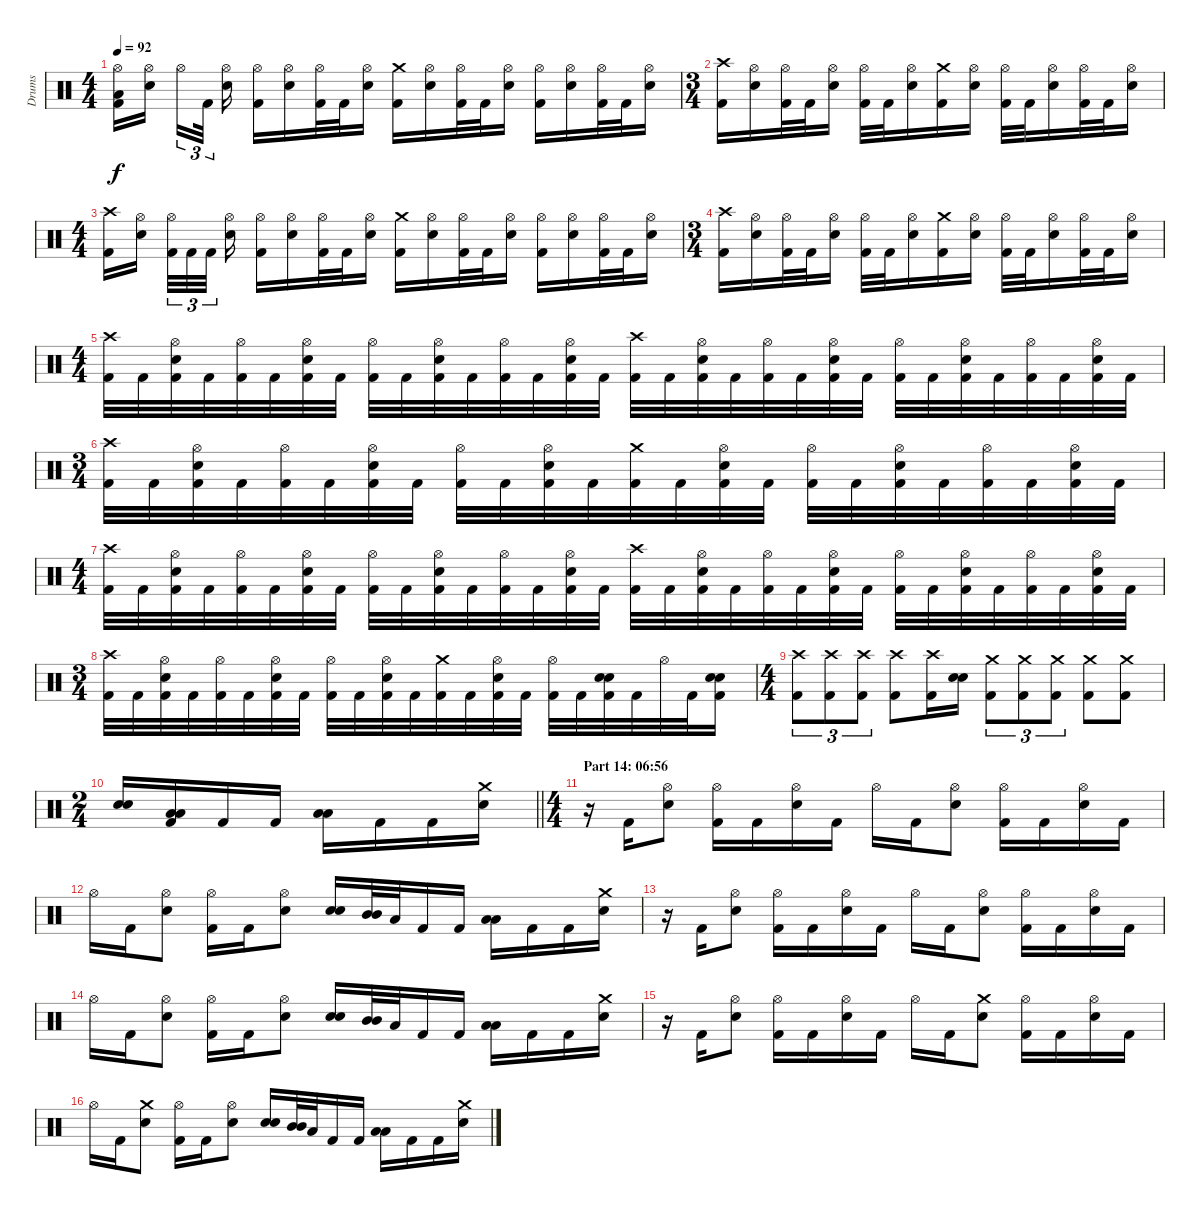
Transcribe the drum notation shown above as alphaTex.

\track ("Drums" "Drums") {instrument percussion}
\staff {score}
\articulation defaults
\ts (4 4)
\tempo 92
\clef neutral
\ks c
("Hi-Hat (open)" "Low Floor Tom (hit)" "Kick (hit) 2").16{dy f} ("Hi-Hat (open)" "Electric Snare (hit)").16{beam splitsecondary} "Hi-Hat (open)".16{tu (3 2)} "Kick (hit) 2".32{tu (3 2) beam splitsecondary} ("Hi-Hat (open)" "Electric Snare (hit)").16 ("Hi-Hat (open)" "Kick (hit) 2").16 ("Hi-Hat (open)" "Electric Snare (hit)").16 ("Hi-Hat (open)" "Kick (hit) 2").32 "Kick (hit) 2".32 ("Hi-Hat (open)" "Electric Snare (hit)").16 ("Crash medium (hit)" "Kick (hit) 2").16 ("Hi-Hat (open)" "Electric Snare (hit)").16 ("Hi-Hat (open)" "Kick (hit) 2").32 "Kick (hit) 2".32 ("Hi-Hat (open)" "Electric Snare (hit)").16 ("Hi-Hat (open)" "Kick (hit) 2").16 ("Hi-Hat (open)" "Electric Snare (hit)").16 ("Hi-Hat (open)" "Kick (hit) 2").32 "Kick (hit) 2".32 ("Hi-Hat (open)" "Electric Snare (hit)").16 |
\ts (3 4)
("Crash high (hit)" "Kick (hit) 2").16 ("Hi-Hat (open)" "Electric Snare (hit)").16 ("Hi-Hat (open)" "Kick (hit) 2").32 "Kick (hit) 2".32 ("Hi-Hat (open)" "Electric Snare (hit)").16 ("Hi-Hat (open)" "Kick (hit) 2").32 "Kick (hit) 2".32 ("Hi-Hat (open)" "Electric Snare (hit)").16 ("Crash medium (hit)" "Kick (hit) 2").16 ("Hi-Hat (open)" "Electric Snare (hit)").16 ("Hi-Hat (open)" "Kick (hit) 2").32 "Kick (hit) 2".32 ("Hi-Hat (open)" "Electric Snare (hit)").16 ("Hi-Hat (open)" "Kick (hit) 2").32 "Kick (hit) 2".32 ("Hi-Hat (open)" "Electric Snare (hit)").16 |
\ts (4 4)
("Crash high (hit)" "Kick (hit) 2").16 ("Hi-Hat (open)" "Electric Snare (hit)").16{beam splitsecondary} ("Hi-Hat (open)" "Kick (hit) 2").32{tu (3 2)} "Kick (hit) 2".32{tu (3 2)} "Kick (hit) 2".32{tu (3 2) beam splitsecondary} ("Hi-Hat (open)" "Electric Snare (hit)").16 ("Hi-Hat (open)" "Kick (hit) 2").16 ("Hi-Hat (open)" "Electric Snare (hit)").16 ("Hi-Hat (open)" "Kick (hit) 2").32 "Kick (hit) 2".32 ("Hi-Hat (open)" "Electric Snare (hit)").16 ("Crash medium (hit)" "Kick (hit) 2").16 ("Hi-Hat (open)" "Electric Snare (hit)").16 ("Hi-Hat (open)" "Kick (hit) 2").32 "Kick (hit) 2".32 ("Hi-Hat (open)" "Electric Snare (hit)").16 ("Hi-Hat (open)" "Kick (hit) 2").16 ("Hi-Hat (open)" "Electric Snare (hit)").16 ("Hi-Hat (open)" "Kick (hit) 2").32 "Kick (hit) 2".32 ("Hi-Hat (open)" "Electric Snare (hit)").16 |
\ts (3 4)
("Crash high (hit)" "Kick (hit) 2").16 ("Hi-Hat (open)" "Electric Snare (hit)").16 ("Hi-Hat (open)" "Kick (hit) 2").32 "Kick (hit) 2".32 ("Hi-Hat (open)" "Electric Snare (hit)").16 ("Hi-Hat (open)" "Kick (hit) 2").32 "Kick (hit) 2".32 ("Hi-Hat (open)" "Electric Snare (hit)").16 ("Crash medium (hit)" "Kick (hit) 2").16 ("Hi-Hat (open)" "Electric Snare (hit)").16 ("Hi-Hat (open)" "Kick (hit) 2").32 "Kick (hit) 2".32 ("Hi-Hat (open)" "Electric Snare (hit)").16 ("Hi-Hat (open)" "Kick (hit) 2").32 "Kick (hit) 2".32 ("Hi-Hat (open)" "Electric Snare (hit)").16 |
\ts (4 4)
("Crash high (hit)" "Kick (hit) 2").32 "Kick (hit) 2".32 ("Hi-Hat (open)" "Electric Snare (hit)" "Kick (hit) 2").32 "Kick (hit) 2".32 ("Hi-Hat (open)" "Kick (hit) 2").32 "Kick (hit) 2".32 ("Hi-Hat (open)" "Electric Snare (hit)" "Kick (hit) 2").32 "Kick (hit) 2".32 ("Hi-Hat (open)" "Kick (hit) 2").32 "Kick (hit) 2".32 ("Hi-Hat (open)" "Electric Snare (hit)" "Kick (hit) 2").32 "Kick (hit) 2".32 ("Hi-Hat (open)" "Kick (hit) 2").32 "Kick (hit) 2".32 ("Hi-Hat (open)" "Electric Snare (hit)" "Kick (hit) 2").32 "Kick (hit) 2".32 ("Crash high (hit)" "Kick (hit) 2").32 "Kick (hit) 2".32 ("Hi-Hat (open)" "Electric Snare (hit)" "Kick (hit) 2").32 "Kick (hit) 2".32 ("Hi-Hat (open)" "Kick (hit) 2").32 "Kick (hit) 2".32 ("Hi-Hat (open)" "Electric Snare (hit)" "Kick (hit) 2").32 "Kick (hit) 2".32 ("Hi-Hat (open)" "Kick (hit) 2").32 "Kick (hit) 2".32 ("Hi-Hat (open)" "Electric Snare (hit)" "Kick (hit) 2").32 "Kick (hit) 2".32 ("Hi-Hat (open)" "Kick (hit) 2").32 "Kick (hit) 2".32 ("Hi-Hat (open)" "Electric Snare (hit)" "Kick (hit) 2").32 "Kick (hit) 2".32 |
\ts (3 4)
("Crash high (hit)" "Kick (hit) 2").32 "Kick (hit) 2".32 ("Hi-Hat (open)" "Electric Snare (hit)" "Kick (hit) 2").32 "Kick (hit) 2".32 ("Hi-Hat (open)" "Kick (hit) 2").32 "Kick (hit) 2".32 ("Hi-Hat (open)" "Electric Snare (hit)" "Kick (hit) 2").32 "Kick (hit) 2".32 ("Hi-Hat (open)" "Kick (hit) 2").32 "Kick (hit) 2".32 ("Hi-Hat (open)" "Electric Snare (hit)" "Kick (hit) 2").32 "Kick (hit) 2".32 ("Crash medium (hit)" "Kick (hit) 2").32 "Kick (hit) 2".32 ("Hi-Hat (open)" "Electric Snare (hit)" "Kick (hit) 2").32 "Kick (hit) 2".32 ("Hi-Hat (open)" "Kick (hit) 2").32 "Kick (hit) 2".32 ("Hi-Hat (open)" "Electric Snare (hit)" "Kick (hit) 2").32 "Kick (hit) 2".32 ("Hi-Hat (open)" "Kick (hit) 2").32 "Kick (hit) 2".32 ("Hi-Hat (open)" "Electric Snare (hit)" "Kick (hit) 2").32 "Kick (hit) 2".32 |
\ts (4 4)
("Crash high (hit)" "Kick (hit) 2").32 "Kick (hit) 2".32 ("Hi-Hat (open)" "Electric Snare (hit)" "Kick (hit) 2").32 "Kick (hit) 2".32 ("Hi-Hat (open)" "Kick (hit) 2").32 "Kick (hit) 2".32 ("Hi-Hat (open)" "Electric Snare (hit)" "Kick (hit) 2").32 "Kick (hit) 2".32 ("Hi-Hat (open)" "Kick (hit) 2").32 "Kick (hit) 2".32 ("Hi-Hat (open)" "Electric Snare (hit)" "Kick (hit) 2").32 "Kick (hit) 2".32 ("Hi-Hat (open)" "Kick (hit) 2").32 "Kick (hit) 2".32 ("Hi-Hat (open)" "Electric Snare (hit)" "Kick (hit) 2").32 "Kick (hit) 2".32 ("Crash high (hit)" "Kick (hit) 2").32 "Kick (hit) 2".32 ("Hi-Hat (open)" "Electric Snare (hit)" "Kick (hit) 2").32 "Kick (hit) 2".32 ("Hi-Hat (open)" "Kick (hit) 2").32 "Kick (hit) 2".32 ("Hi-Hat (open)" "Electric Snare (hit)" "Kick (hit) 2").32 "Kick (hit) 2".32 ("Hi-Hat (open)" "Kick (hit) 2").32 "Kick (hit) 2".32 ("Hi-Hat (open)" "Electric Snare (hit)" "Kick (hit) 2").32 "Kick (hit) 2".32 ("Hi-Hat (open)" "Kick (hit) 2").32 "Kick (hit) 2".32 ("Hi-Hat (open)" "Electric Snare (hit)" "Kick (hit) 2").32 "Kick (hit) 2".32 |
\ts (3 4)
("Crash high (hit)" "Kick (hit) 2").32 "Kick (hit) 2".32 ("Hi-Hat (open)" "Electric Snare (hit)" "Kick (hit) 2").32 "Kick (hit) 2".32 ("Hi-Hat (open)" "Kick (hit) 2").32 "Kick (hit) 2".32 ("Hi-Hat (open)" "Electric Snare (hit)" "Kick (hit) 2").32 "Kick (hit) 2".32 ("Hi-Hat (open)" "Kick (hit) 2").32 "Kick (hit) 2".32 ("Hi-Hat (open)" "Electric Snare (hit)" "Kick (hit) 2").32 "Kick (hit) 2".32 ("Crash medium (hit)" "Kick (hit) 2").32 "Kick (hit) 2".32 ("Hi-Hat (open)" "Electric Snare (hit)" "Kick (hit) 2").32 "Kick (hit) 2".32 ("Hi-Hat (open)" "Kick (hit) 2").32 "Kick (hit) 2".32 ("Electric Snare (hit)" "Electric Snare (hit)" "Kick (hit) 2").32{bd 60} "Kick (hit) 2".32 "Hi-Hat (open)".32 "Kick (hit) 2".32 ("Electric Snare (hit)" "Electric Snare (hit)" "Kick (hit) 2").16{bd 60} |
\ts (4 4)
("Crash high (hit)" "Kick (hit) 2").8{tu (3 2)} ("Crash high (hit)" "Kick (hit) 2").8{tu (3 2)} ("Crash high (hit)" "Kick (hit) 2").8{tu (3 2)} ("Crash high (hit)" "Kick (hit) 2").8 ("Crash high (hit)" "Kick (hit) 2").16 ("Electric Snare (hit)" "Electric Snare (hit)").16{bd 120} ("Crash medium (hit)" "Kick (hit) 2").8{tu (3 2)} ("Crash medium (hit)" "Kick (hit) 2").8{tu (3 2)} ("Crash medium (hit)" "Kick (hit) 2").8{tu (3 2)} ("Crash medium (hit)" "Kick (hit) 2").8 ("Crash medium (hit)" "Kick (hit) 2").8 |
\ts (2 4)
\barLineRight lightlight
("Electric Snare (hit)" "Electric Snare (hit)").16{bd 30} ("Low Tom (hit)" "Low Tom (hit)" "Kick (hit) 2").16{bd 30} "Kick (hit) 2".16 "Kick (hit) 2".16 ("Low Tom (hit)" "Low Tom (hit)").16{bd 30} "Kick (hit) 2".16 "Kick (hit) 2".16 ("Crash medium (hit)" "Electric Snare (hit)").16 |
\ts (4 4)
\section ("" "Part 14: 06:56")
r.16 "Kick (hit) 2".16 ("Hi-Hat (open)" "Electric Snare (hit)").8 ("Hi-Hat (open)" "Kick (hit) 2").16 "Kick (hit) 2".16 ("Hi-Hat (open)" "Electric Snare (hit)").16 "Kick (hit) 2".16 "Hi-Hat (open)".16 "Kick (hit) 2".16 ("Hi-Hat (open)" "Electric Snare (hit)").8 ("Hi-Hat (open)" "Kick (hit) 2").16 "Kick (hit) 2".16 ("Hi-Hat (open)" "Electric Snare (hit)").16 "Kick (hit) 2".16 |
"Hi-Hat (open)".16 "Kick (hit) 2".16 ("Hi-Hat (open)" "Electric Snare (hit)").8 ("Hi-Hat (open)" "Kick (hit) 2").16 "Kick (hit) 2".16 ("Hi-Hat (open)" "Electric Snare (hit)").8 ("Electric Snare (hit)" "Electric Snare (hit)").16{bd 30} ("Mid Tom (hit)" "Mid Tom (hit)").32{bd 30} "Low Tom (hit)".32 "Kick (hit) 2".16 "Kick (hit) 2".16 ("Low Tom (hit)" "Low Tom (hit)").16{bd 30} "Kick (hit) 2".16 "Kick (hit) 2".16 ("Crash medium (hit)" "Electric Snare (hit)").16 |
r.16 "Kick (hit) 2".16 ("Hi-Hat (open)" "Electric Snare (hit)").8 ("Hi-Hat (open)" "Kick (hit) 2").16 "Kick (hit) 2".16 ("Hi-Hat (open)" "Electric Snare (hit)").16 "Kick (hit) 2".16 "Hi-Hat (open)".16 "Kick (hit) 2".16 ("Hi-Hat (open)" "Electric Snare (hit)").8 ("Hi-Hat (open)" "Kick (hit) 2").16 "Kick (hit) 2".16 ("Hi-Hat (open)" "Electric Snare (hit)").16 "Kick (hit) 2".16 |
"Hi-Hat (open)".16 "Kick (hit) 2".16 ("Hi-Hat (open)" "Electric Snare (hit)").8 ("Hi-Hat (open)" "Kick (hit) 2").16 "Kick (hit) 2".16 ("Hi-Hat (open)" "Electric Snare (hit)").8 ("Electric Snare (hit)" "Electric Snare (hit)").16{bd 30} ("Mid Tom (hit)" "Mid Tom (hit)").32{bd 30} "Low Tom (hit)".32 "Kick (hit) 2".16 "Kick (hit) 2".16 ("Low Tom (hit)" "Low Tom (hit)").16{bd 30} "Kick (hit) 2".16 "Kick (hit) 2".16 ("Crash medium (hit)" "Electric Snare (hit)").16 |
r.16 "Kick (hit) 2".16 ("Hi-Hat (open)" "Electric Snare (hit)").8 ("Hi-Hat (open)" "Kick (hit) 2").16 "Kick (hit) 2".16 ("Hi-Hat (open)" "Electric Snare (hit)").16 "Kick (hit) 2".16 "Hi-Hat (open)".16 "Kick (hit) 2".16 ("Crash medium (hit)" "Electric Snare (hit)").8 ("Hi-Hat (open)" "Kick (hit) 2").16 "Kick (hit) 2".16 ("Hi-Hat (open)" "Electric Snare (hit)").16 "Kick (hit) 2".16 |
"Hi-Hat (open)".16 "Kick (hit) 2".16 ("Crash medium (hit)" "Electric Snare (hit)").8 ("Hi-Hat (open)" "Kick (hit) 2").16 "Kick (hit) 2".16 ("Hi-Hat (open)" "Electric Snare (hit)").8 ("Electric Snare (hit)" "Electric Snare (hit)").16{bd 30} ("Mid Tom (hit)" "Mid Tom (hit)").32{bd 30} "Low Tom (hit)".32 "Kick (hit) 2".16 "Kick (hit) 2".16 ("Low Tom (hit)" "Low Tom (hit)").16{bd 30} "Kick (hit) 2".16 "Kick (hit) 2".16 ("Crash medium (hit)" "Electric Snare (hit)").16
